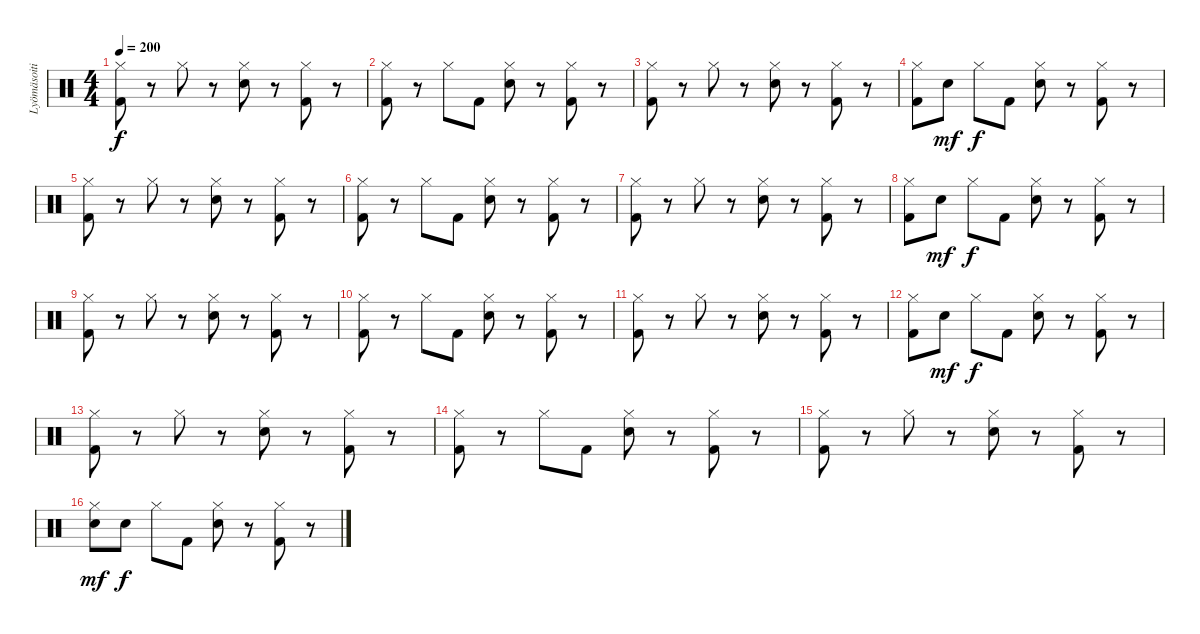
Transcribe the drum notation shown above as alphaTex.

\track ("Lyömäsoitin" "Lyömäsoiti") {instrument percussion}
\staff {score}
\articulation defaults
\ts (4 4)
\tempo 200
\clef neutral
\ks c
("Kick (hit) 2" "Hi-Hat (closed)").8{dy f} r.8 "Hi-Hat (closed)".8 r.8 ("Snare (hit) 2" "Hi-Hat (closed)").8 r.8 ("Hi-Hat (closed)" "Kick (hit) 2").8 r.8 |
("Kick (hit) 2" "Hi-Hat (closed)").8 r.8 "Hi-Hat (closed)".8 "Kick (hit) 2".8 ("Snare (hit) 2" "Hi-Hat (closed)").8 r.8 ("Kick (hit) 2" "Hi-Hat (closed)").8 r.8 |
("Kick (hit) 2" "Hi-Hat (closed)").8 r.8 "Hi-Hat (closed)".8 r.8 ("Snare (hit) 2" "Hi-Hat (closed)").8 r.8 ("Hi-Hat (closed)" "Kick (hit) 2").8 r.8 |
("Kick (hit) 2" "Hi-Hat (closed)").8 "Snare (hit) 2".8{dy mf} "Hi-Hat (closed)".8{dy f} "Kick (hit) 2".8 ("Snare (hit) 2" "Hi-Hat (closed)").8 r.8 ("Kick (hit) 2" "Hi-Hat (closed)").8 r.8 |
("Kick (hit) 2" "Hi-Hat (closed)").8 r.8 "Hi-Hat (closed)".8 r.8 ("Snare (hit) 2" "Hi-Hat (closed)").8 r.8 ("Hi-Hat (closed)" "Kick (hit) 2").8 r.8 |
("Kick (hit) 2" "Hi-Hat (closed)").8 r.8 "Hi-Hat (closed)".8 "Kick (hit) 2".8 ("Snare (hit) 2" "Hi-Hat (closed)").8 r.8 ("Kick (hit) 2" "Hi-Hat (closed)").8 r.8 |
("Kick (hit) 2" "Hi-Hat (closed)").8 r.8 "Hi-Hat (closed)".8 r.8 ("Snare (hit) 2" "Hi-Hat (closed)").8 r.8 ("Hi-Hat (closed)" "Kick (hit) 2").8 r.8 |
("Kick (hit) 2" "Hi-Hat (closed)").8 "Snare (hit) 2".8{dy mf} "Hi-Hat (closed)".8{dy f} "Kick (hit) 2".8 ("Snare (hit) 2" "Hi-Hat (closed)").8 r.8 ("Kick (hit) 2" "Hi-Hat (closed)").8 r.8 |
("Kick (hit) 2" "Hi-Hat (closed)").8 r.8 "Hi-Hat (closed)".8 r.8 ("Snare (hit) 2" "Hi-Hat (closed)").8 r.8 ("Hi-Hat (closed)" "Kick (hit) 2").8 r.8 |
("Kick (hit) 2" "Hi-Hat (closed)").8 r.8 "Hi-Hat (closed)".8 "Kick (hit) 2".8 ("Snare (hit) 2" "Hi-Hat (closed)").8 r.8 ("Kick (hit) 2" "Hi-Hat (closed)").8 r.8 |
("Kick (hit) 2" "Hi-Hat (closed)").8 r.8 "Hi-Hat (closed)".8 r.8 ("Snare (hit) 2" "Hi-Hat (closed)").8 r.8 ("Hi-Hat (closed)" "Kick (hit) 2").8 r.8 |
("Kick (hit) 2" "Hi-Hat (closed)").8 "Snare (hit) 2".8{dy mf} "Hi-Hat (closed)".8{dy f} "Kick (hit) 2".8 ("Snare (hit) 2" "Hi-Hat (closed)").8 r.8 ("Kick (hit) 2" "Hi-Hat (closed)").8 r.8 |
("Kick (hit) 2" "Hi-Hat (closed)").8 r.8 "Hi-Hat (closed)".8 r.8 ("Snare (hit) 2" "Hi-Hat (closed)").8 r.8 ("Hi-Hat (closed)" "Kick (hit) 2").8 r.8 |
("Kick (hit) 2" "Hi-Hat (closed)").8 r.8 "Hi-Hat (closed)".8 "Kick (hit) 2".8 ("Snare (hit) 2" "Hi-Hat (closed)").8 r.8 ("Kick (hit) 2" "Hi-Hat (closed)").8 r.8 |
("Kick (hit) 2" "Hi-Hat (closed)").8 r.8 "Hi-Hat (closed)".8 r.8 ("Snare (hit) 2" "Hi-Hat (closed)").8 r.8 ("Hi-Hat (closed)" "Kick (hit) 2").8 r.8 |
("Snare (hit) 2" "Hi-Hat (closed)").8{dy mf} "Snare (hit) 2".8{dy f} "Hi-Hat (closed)".8 "Kick (hit) 2".8 ("Snare (hit) 2" "Hi-Hat (closed)").8 r.8 ("Kick (hit) 2" "Hi-Hat (closed)").8 r.8
